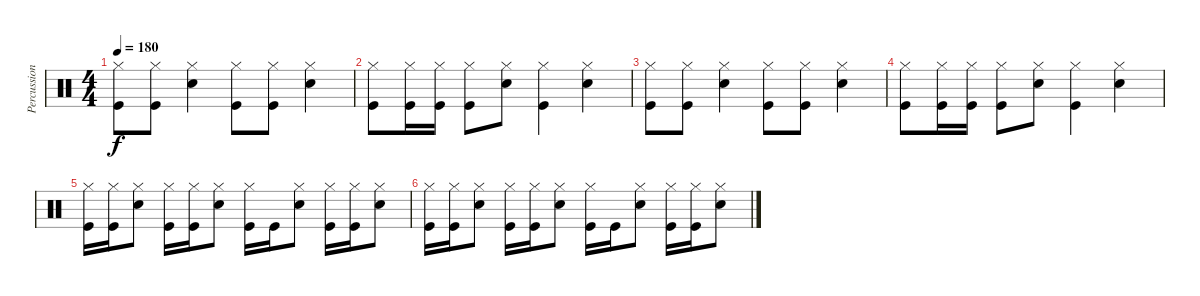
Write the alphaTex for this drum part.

\track ("Percussion" "Percussion") {instrument percussion}
\staff {score}
\articulation defaults
\ts (4 4)
\tempo 180
\clef neutral
\ks c
("Hi-Hat (closed)" "Kick (hit)").8{dy f} ("Hi-Hat (closed)" "Kick (hit)").8 ("Hi-Hat (closed)" "Snare (hit) 2").4 ("Hi-Hat (closed)" "Kick (hit)").8 ("Hi-Hat (closed)" "Kick (hit)").8 ("Hi-Hat (closed)" "Snare (hit) 2").4 |
("Hi-Hat (closed)" "Kick (hit)").8 ("Hi-Hat (closed)" "Kick (hit)").16 ("Hi-Hat (closed)" "Kick (hit)").16 ("Hi-Hat (closed)" "Kick (hit)").8 ("Hi-Hat (closed)" "Snare (hit) 2").8 ("Hi-Hat (closed)" "Kick (hit)").4 ("Hi-Hat (closed)" "Snare (hit) 2").4 |
("Hi-Hat (closed)" "Kick (hit)").8 ("Hi-Hat (closed)" "Kick (hit)").8 ("Hi-Hat (closed)" "Snare (hit) 2").4 ("Hi-Hat (closed)" "Kick (hit)").8 ("Hi-Hat (closed)" "Kick (hit)").8 ("Hi-Hat (closed)" "Snare (hit) 2").4 |
("Hi-Hat (closed)" "Kick (hit)").8 ("Hi-Hat (closed)" "Kick (hit)").16 ("Hi-Hat (closed)" "Kick (hit)").16 ("Hi-Hat (closed)" "Kick (hit)").8 ("Hi-Hat (closed)" "Snare (hit) 2").8 ("Hi-Hat (closed)" "Kick (hit)").4 ("Hi-Hat (closed)" "Snare (hit) 2").4 |
("Hi-Hat (closed)" "Kick (hit)").16 ("Hi-Hat (closed)" "Kick (hit)").16 ("Hi-Hat (closed)" "Snare (hit) 2").8 ("Hi-Hat (closed)" "Kick (hit)").16 ("Hi-Hat (closed)" "Kick (hit)").16 ("Hi-Hat (closed)" "Snare (hit) 2").8 ("Hi-Hat (closed)" "Kick (hit)").16 "Kick (hit)".16 ("Hi-Hat (closed)" "Snare (hit) 2").8 ("Hi-Hat (closed)" "Kick (hit)").16 ("Hi-Hat (closed)" "Kick (hit)").16 ("Hi-Hat (closed)" "Snare (hit) 2").8 |
("Hi-Hat (closed)" "Kick (hit)").16 ("Hi-Hat (closed)" "Kick (hit)").16 ("Hi-Hat (closed)" "Snare (hit) 2").8 ("Hi-Hat (closed)" "Kick (hit)").16 ("Hi-Hat (closed)" "Kick (hit)").16 ("Hi-Hat (closed)" "Snare (hit) 2").8 ("Hi-Hat (closed)" "Kick (hit)").16 "Kick (hit)".16 ("Hi-Hat (closed)" "Snare (hit) 2").8 ("Hi-Hat (closed)" "Kick (hit)").16 ("Hi-Hat (closed)" "Kick (hit)").16 ("Hi-Hat (closed)" "Snare (hit) 2").8
